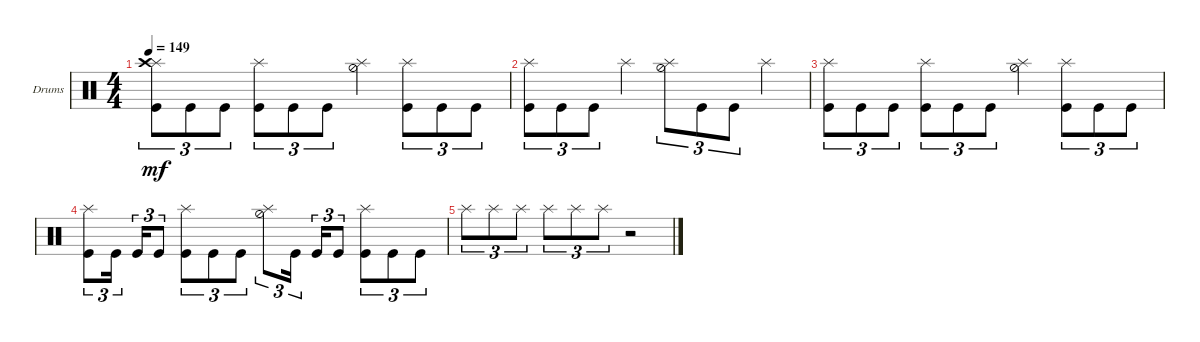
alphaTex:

\defaultSystemsLayout 4
\bracketExtendMode groupsimilarinstruments
\firstSystemTrackNameOrientation horizontal
\otherSystemsTrackNameOrientation horizontal
\track ("Chris Adler" "Drums") {instrument percussion}
\staff {score}
\articulation defaults
\ts (4 4)
\tempo 149
\clef neutral
\scale
0.333333
\ks c
("Kick (hit)" "Splash (hit)" "Crash high (hit)").8{tu (3 2) dy mf} "Kick (hit)".8{tu (3 2)} "Kick (hit)".8{tu (3 2)} ("Kick (hit)" "Splash (hit)").8{tu (3 2)} "Kick (hit)".8{tu (3 2)} "Kick (hit)".8{tu (3 2)} ("Hi-Hat (half)" "Splash (hit)").4 ("Kick (hit)" "Splash (hit)").8{tu (3 2)} "Kick (hit)".8{tu (3 2)} "Kick (hit)".8{tu (3 2)} |
\scale
0.333333 ("Kick (hit)" "Splash (hit)").8{tu (3 2)} "Kick (hit)".8{tu (3 2)} "Kick (hit)".8{tu (3 2)} "Splash (hit)".4 ("Hi-Hat (half)" "Splash (hit)").8{tu (3 2)} "Kick (hit)".8{tu (3 2)} "Kick (hit)".8{tu (3 2)} "Splash (hit)".4 |
("Kick (hit)" "Splash (hit)").8{tu (3 2)} "Kick (hit)".8{tu (3 2)} "Kick (hit)".8{tu (3 2)} ("Kick (hit)" "Splash (hit)").8{tu (3 2)} "Kick (hit)".8{tu (3 2)} "Kick (hit)".8{tu (3 2)} ("Hi-Hat (half)" "Splash (hit)").4 ("Kick (hit)" "Splash (hit)").8{tu (3 2)} "Kick (hit)".8{tu (3 2)} "Kick (hit)".8{tu (3 2)} |
("Kick (hit)" "Splash (hit)").8{tu (3 2)} "Kick (hit)".16{tu (3 2)} "Kick (hit)".16{tu (3 2)} "Kick (hit)".8{tu (3 2)} ("Kick (hit)" "Splash (hit)").8{tu (3 2)} "Kick (hit)".8{tu (3 2)} "Kick (hit)".8{tu (3 2)} ("Hi-Hat (half)" "Splash (hit)").8{tu (3 2)} "Kick (hit)".16{tu (3 2)} "Kick (hit)".16{tu (3 2)} "Kick (hit)".8{tu (3 2)} ("Kick (hit)" "Splash (hit)").8{tu (3 2)} "Kick (hit)".8{tu (3 2)} "Kick (hit)".8{tu (3 2)} |
"Splash (hit)".8{tu (3 2)} "Splash (hit)".8{tu (3 2)} "Splash (hit)".8{tu (3 2)} "Splash (hit)".8{tu (3 2)} "Splash (hit)".8{tu (3 2)} "Splash (hit)".8{tu (3 2)} r.2
